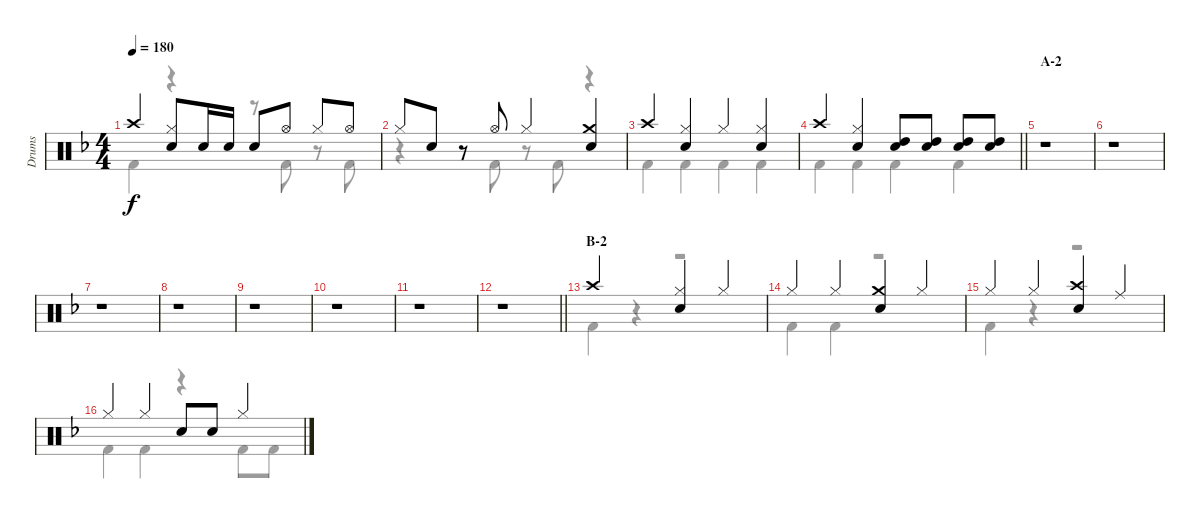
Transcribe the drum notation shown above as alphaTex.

\track ("Drums" "Drums") {instrument percussion}
\staff {score}
\articulation defaults
\voice
\ts (4 4)
\tempo 180
\clef neutral
\ks f "Crash high (hit)".4{dy f}
("Hi-Hat (closed)" "Snare (hit) 2").8 "Snare (hit) 2".16 "Snare (hit) 2".16 "Snare (hit) 2".8 "Hi-Hat (open)".8 "Hi-Hat (closed)".8 "Hi-Hat (open)".8 |
"Hi-Hat (closed)".8 "Snare (hit) 2".8 r.8 "Hi-Hat (open)".8 "Hi-Hat (closed)".4 ("Crash medium (hit)" "Snare (hit) 2").4 |
"Crash high (hit)".4 ("Hi-Hat (closed)" "Snare (hit) 2").4 "Hi-Hat (closed)".4 ("Hi-Hat (closed)" "Snare (hit) 2").4 |
\barLineRight lightlight "Crash high (hit)".4
("Hi-Hat (closed)" "Snare (hit) 2").4 ("High Tom (hit)" "Snare (hit) 2").8 ("High Tom (hit)" "Snare (hit) 2").8 ("High Tom (hit)" "Snare (hit) 2").8 ("High Tom (hit)" "Snare (hit) 2").8 |
\section ("" "A-2")
r.1 |
r.1 |
r.1 |
r.1 |
r.1 |
r.1 |
r.1 |
\barLineRight lightlight
r.1 |
\section ("" "B-2")
"Crash high (hit)".2 ("Hi-Hat (closed)" "Snare (hit) 2").4 "Hi-Hat (closed)".4 |
"Hi-Hat (closed)".4 "Hi-Hat (closed)".4 ("Crash medium (hit)" "Snare (hit) 2").4 "Hi-Hat (closed)".4 |
"Hi-Hat (closed)".4 "Hi-Hat (closed)".4 ("Crash high (hit)" "Snare (hit) 2").4 "Ride (middle)".4 |
"Hi-Hat (closed)".4 "Hi-Hat (closed)".4 "Snare (hit) 2".8 "Snare (hit) 2".8 "Hi-Hat (closed)".4
\voice
\clef neutral
\ottava regular
\simile none
\ks f "Kick (hit) 2".4{dy f}
r.4 r.8 "Kick (hit) 2".8 r.8 "Kick (hit) 2".8 |
r.4 r.8 "Kick (hit) 2".8 r.8 "Kick (hit) 2".8 r.4 |
"Kick (hit) 2".4 "Kick (hit) 2".4 "Kick (hit) 2".4 "Kick (hit) 2".4 |
\barLineRight lightlight "Kick (hit) 2".4 "Kick (hit) 2".4 "Kick (hit) 2".4 "Kick (hit) 2".4
|
r.1 |
r.1 |
r.1 |
r.1 |
r.1 |
r.1 |
r.1 |
\barLineRight lightlight
r.1 |
"Kick (hit) 2".4 r.4 r.2 |
"Kick (hit) 2".4 "Kick (hit) 2".4 r.2 |
"Kick (hit) 2".4 r.4 r.2 |
"Kick (hit) 2".4 "Kick (hit) 2".4 r.4 "Kick (hit) 2".8 "Kick (hit) 2".8
